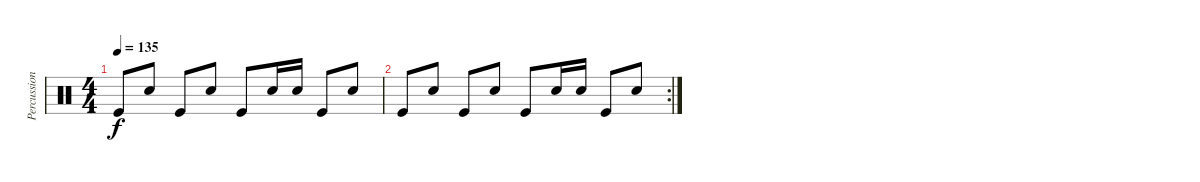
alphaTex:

\track ("Percussions" "Percussion") {instrument percussion}
\staff {score}
\articulation defaults
\ts (4 4)
\tempo 135
\clef neutral
\ks c "Kick (hit)".8{dy f} "Snare (hit) 2".8 "Kick (hit)".8 "Snare (hit) 2".8 "Kick (hit)".8 "Snare (hit) 2".16 "Snare (hit) 2".16 "Kick (hit)".8 "Snare (hit) 2".8
|
\rc 2 "Kick (hit)".8 "Snare (hit) 2".8 "Kick (hit)".8 "Snare (hit) 2".8 "Kick (hit)".8 "Snare (hit) 2".16 "Snare (hit) 2".16 "Kick (hit)".8 "Snare (hit) 2".8
